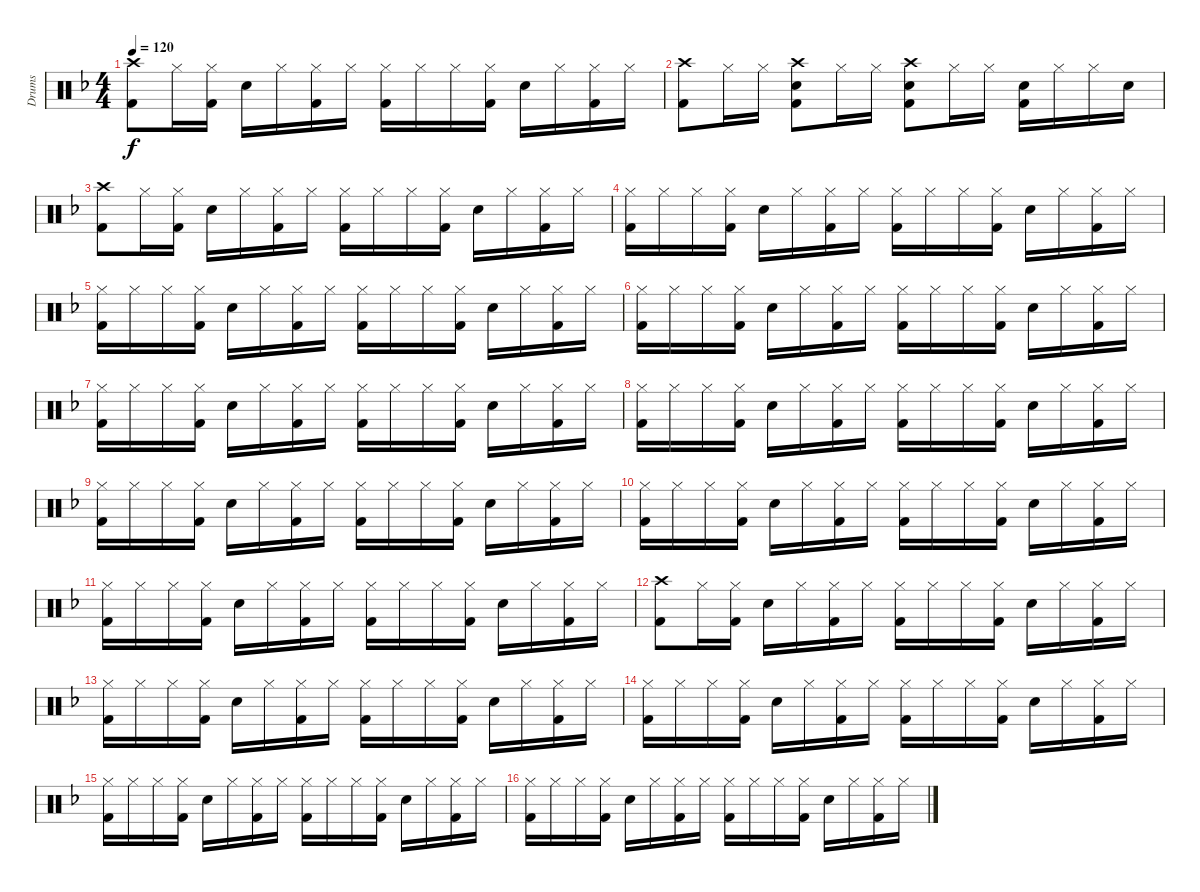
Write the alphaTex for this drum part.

\track ("Drums" "Drums") {instrument percussion}
\staff {score}
\articulation defaults
\ts (4 4)
\tempo 120
\clef neutral
\ks dminor
("Kick (hit) 2" "Crash high (hit)").8{dy f} "Hi-Hat (closed)".16 ("Kick (hit) 2" "Hi-Hat (closed)").16 "Snare (hit) 2".16 "Hi-Hat (closed)".16 ("Kick (hit) 2" "Hi-Hat (closed)").16 "Hi-Hat (closed)".16 ("Kick (hit) 2" "Hi-Hat (closed)").16 "Hi-Hat (closed)".16 "Hi-Hat (closed)".16 ("Kick (hit) 2" "Hi-Hat (closed)").16 "Snare (hit) 2".16 "Hi-Hat (closed)".16 ("Kick (hit) 2" "Hi-Hat (closed)").16 "Hi-Hat (closed)".16 |
("Kick (hit) 2" "Crash high (hit)").8 "Hi-Hat (closed)".16 "Hi-Hat (closed)".16 ("Kick (hit) 2" "Snare (hit) 2" "Crash high (hit)").8 "Hi-Hat (closed)".16 "Hi-Hat (closed)".16 ("Kick (hit) 2" "Snare (hit) 2" "Crash high (hit)").8 "Hi-Hat (closed)".16 "Hi-Hat (closed)".16 ("Kick (hit) 2" "Snare (hit) 2").16 "Hi-Hat (closed)".16 "Hi-Hat (closed)".16 "Snare (hit) 2".16 |
("Kick (hit) 2" "Crash high (hit)").8 "Hi-Hat (closed)".16 ("Kick (hit) 2" "Hi-Hat (closed)").16 "Snare (hit) 2".16 "Hi-Hat (closed)".16 ("Kick (hit) 2" "Hi-Hat (closed)").16 "Hi-Hat (closed)".16 ("Kick (hit) 2" "Hi-Hat (closed)").16 "Hi-Hat (closed)".16 "Hi-Hat (closed)".16 ("Kick (hit) 2" "Hi-Hat (closed)").16 "Snare (hit) 2".16 "Hi-Hat (closed)".16 ("Kick (hit) 2" "Hi-Hat (closed)").16 "Hi-Hat (closed)".16 |
("Kick (hit) 2" "Hi-Hat (closed)").16 "Hi-Hat (closed)".16 "Hi-Hat (closed)".16 ("Kick (hit) 2" "Hi-Hat (closed)").16 "Snare (hit) 2".16 "Hi-Hat (closed)".16 ("Kick (hit) 2" "Hi-Hat (closed)").16 "Hi-Hat (closed)".16 ("Kick (hit) 2" "Hi-Hat (closed)").16 "Hi-Hat (closed)".16 "Hi-Hat (closed)".16 ("Kick (hit) 2" "Hi-Hat (closed)").16 "Snare (hit) 2".16 "Hi-Hat (closed)".16 ("Kick (hit) 2" "Hi-Hat (closed)").16 "Hi-Hat (closed)".16 |
("Kick (hit) 2" "Hi-Hat (closed)").16 "Hi-Hat (closed)".16 "Hi-Hat (closed)".16 ("Kick (hit) 2" "Hi-Hat (closed)").16 "Snare (hit) 2".16 "Hi-Hat (closed)".16 ("Kick (hit) 2" "Hi-Hat (closed)").16 "Hi-Hat (closed)".16 ("Kick (hit) 2" "Hi-Hat (closed)").16 "Hi-Hat (closed)".16 "Hi-Hat (closed)".16 ("Kick (hit) 2" "Hi-Hat (closed)").16 "Snare (hit) 2".16 "Hi-Hat (closed)".16 ("Kick (hit) 2" "Hi-Hat (closed)").16 "Hi-Hat (closed)".16 |
("Kick (hit) 2" "Hi-Hat (closed)").16 "Hi-Hat (closed)".16 "Hi-Hat (closed)".16 ("Kick (hit) 2" "Hi-Hat (closed)").16 "Snare (hit) 2".16 "Hi-Hat (closed)".16 ("Kick (hit) 2" "Hi-Hat (closed)").16 "Hi-Hat (closed)".16 ("Kick (hit) 2" "Hi-Hat (closed)").16 "Hi-Hat (closed)".16 "Hi-Hat (closed)".16 ("Kick (hit) 2" "Hi-Hat (closed)").16 "Snare (hit) 2".16 "Hi-Hat (closed)".16 ("Kick (hit) 2" "Hi-Hat (closed)").16 "Hi-Hat (closed)".16 |
("Kick (hit) 2" "Hi-Hat (closed)").16 "Hi-Hat (closed)".16 "Hi-Hat (closed)".16 ("Kick (hit) 2" "Hi-Hat (closed)").16 "Snare (hit) 2".16 "Hi-Hat (closed)".16 ("Kick (hit) 2" "Hi-Hat (closed)").16 "Hi-Hat (closed)".16 ("Kick (hit) 2" "Hi-Hat (closed)").16 "Hi-Hat (closed)".16 "Hi-Hat (closed)".16 ("Kick (hit) 2" "Hi-Hat (closed)").16 "Snare (hit) 2".16 "Hi-Hat (closed)".16 ("Kick (hit) 2" "Hi-Hat (closed)").16 "Hi-Hat (closed)".16 |
("Kick (hit) 2" "Hi-Hat (closed)").16 "Hi-Hat (closed)".16 "Hi-Hat (closed)".16 ("Kick (hit) 2" "Hi-Hat (closed)").16 "Snare (hit) 2".16 "Hi-Hat (closed)".16 ("Kick (hit) 2" "Hi-Hat (closed)").16 "Hi-Hat (closed)".16 ("Kick (hit) 2" "Hi-Hat (closed)").16 "Hi-Hat (closed)".16 "Hi-Hat (closed)".16 ("Kick (hit) 2" "Hi-Hat (closed)").16 "Snare (hit) 2".16 "Hi-Hat (closed)".16 ("Kick (hit) 2" "Hi-Hat (closed)").16 "Hi-Hat (closed)".16 |
("Kick (hit) 2" "Hi-Hat (closed)").16 "Hi-Hat (closed)".16 "Hi-Hat (closed)".16 ("Kick (hit) 2" "Hi-Hat (closed)").16 "Snare (hit) 2".16 "Hi-Hat (closed)".16 ("Kick (hit) 2" "Hi-Hat (closed)").16 "Hi-Hat (closed)".16 ("Kick (hit) 2" "Hi-Hat (closed)").16 "Hi-Hat (closed)".16 "Hi-Hat (closed)".16 ("Kick (hit) 2" "Hi-Hat (closed)").16 "Snare (hit) 2".16 "Hi-Hat (closed)".16 ("Kick (hit) 2" "Hi-Hat (closed)").16 "Hi-Hat (closed)".16 |
("Kick (hit) 2" "Hi-Hat (closed)").16 "Hi-Hat (closed)".16 "Hi-Hat (closed)".16 ("Kick (hit) 2" "Hi-Hat (closed)").16 "Snare (hit) 2".16 "Hi-Hat (closed)".16 ("Kick (hit) 2" "Hi-Hat (closed)").16 "Hi-Hat (closed)".16 ("Kick (hit) 2" "Hi-Hat (closed)").16 "Hi-Hat (closed)".16 "Hi-Hat (closed)".16 ("Kick (hit) 2" "Hi-Hat (closed)").16 "Snare (hit) 2".16 "Hi-Hat (closed)".16 ("Kick (hit) 2" "Hi-Hat (closed)").16 "Hi-Hat (closed)".16 |
("Kick (hit) 2" "Hi-Hat (closed)").16 "Hi-Hat (closed)".16 "Hi-Hat (closed)".16 ("Kick (hit) 2" "Hi-Hat (closed)").16 "Snare (hit) 2".16 "Hi-Hat (closed)".16 ("Kick (hit) 2" "Hi-Hat (closed)").16 "Hi-Hat (closed)".16 ("Kick (hit) 2" "Hi-Hat (closed)").16 "Hi-Hat (closed)".16 "Hi-Hat (closed)".16 ("Kick (hit) 2" "Hi-Hat (closed)").16 "Snare (hit) 2".16 "Hi-Hat (closed)".16 ("Kick (hit) 2" "Hi-Hat (closed)").16 "Hi-Hat (closed)".16 |
("Kick (hit) 2" "Crash high (hit)").8 "Hi-Hat (closed)".16 ("Kick (hit) 2" "Hi-Hat (closed)").16 "Snare (hit) 2".16 "Hi-Hat (closed)".16 ("Kick (hit) 2" "Hi-Hat (closed)").16 "Hi-Hat (closed)".16 ("Kick (hit) 2" "Hi-Hat (closed)").16 "Hi-Hat (closed)".16 "Hi-Hat (closed)".16 ("Kick (hit) 2" "Hi-Hat (closed)").16 "Snare (hit) 2".16 "Hi-Hat (closed)".16 ("Kick (hit) 2" "Hi-Hat (closed)").16 "Hi-Hat (closed)".16 |
("Kick (hit) 2" "Hi-Hat (closed)").16 "Hi-Hat (closed)".16 "Hi-Hat (closed)".16 ("Kick (hit) 2" "Hi-Hat (closed)").16 "Snare (hit) 2".16 "Hi-Hat (closed)".16 ("Kick (hit) 2" "Hi-Hat (closed)").16 "Hi-Hat (closed)".16 ("Kick (hit) 2" "Hi-Hat (closed)").16 "Hi-Hat (closed)".16 "Hi-Hat (closed)".16 ("Kick (hit) 2" "Hi-Hat (closed)").16 "Snare (hit) 2".16 "Hi-Hat (closed)".16 ("Kick (hit) 2" "Hi-Hat (closed)").16 "Hi-Hat (closed)".16 |
("Kick (hit) 2" "Hi-Hat (closed)").16 "Hi-Hat (closed)".16 "Hi-Hat (closed)".16 ("Kick (hit) 2" "Hi-Hat (closed)").16 "Snare (hit) 2".16 "Hi-Hat (closed)".16 ("Kick (hit) 2" "Hi-Hat (closed)").16 "Hi-Hat (closed)".16 ("Kick (hit) 2" "Hi-Hat (closed)").16 "Hi-Hat (closed)".16 "Hi-Hat (closed)".16 ("Kick (hit) 2" "Hi-Hat (closed)").16 "Snare (hit) 2".16 "Hi-Hat (closed)".16 ("Kick (hit) 2" "Hi-Hat (closed)").16 "Hi-Hat (closed)".16 |
("Kick (hit) 2" "Hi-Hat (closed)").16 "Hi-Hat (closed)".16 "Hi-Hat (closed)".16 ("Kick (hit) 2" "Hi-Hat (closed)").16 "Snare (hit) 2".16 "Hi-Hat (closed)".16 ("Kick (hit) 2" "Hi-Hat (closed)").16 "Hi-Hat (closed)".16 ("Kick (hit) 2" "Hi-Hat (closed)").16 "Hi-Hat (closed)".16 "Hi-Hat (closed)".16 ("Kick (hit) 2" "Hi-Hat (closed)").16 "Snare (hit) 2".16 "Hi-Hat (closed)".16 ("Kick (hit) 2" "Hi-Hat (closed)").16 "Hi-Hat (closed)".16 |
("Kick (hit) 2" "Hi-Hat (closed)").16 "Hi-Hat (closed)".16 "Hi-Hat (closed)".16 ("Kick (hit) 2" "Hi-Hat (closed)").16 "Snare (hit) 2".16 "Hi-Hat (closed)".16 ("Kick (hit) 2" "Hi-Hat (closed)").16 "Hi-Hat (closed)".16 ("Kick (hit) 2" "Hi-Hat (closed)").16 "Hi-Hat (closed)".16 "Hi-Hat (closed)".16 ("Kick (hit) 2" "Hi-Hat (closed)").16 "Snare (hit) 2".16 "Hi-Hat (closed)".16 ("Kick (hit) 2" "Hi-Hat (closed)").16 "Hi-Hat (closed)".16
